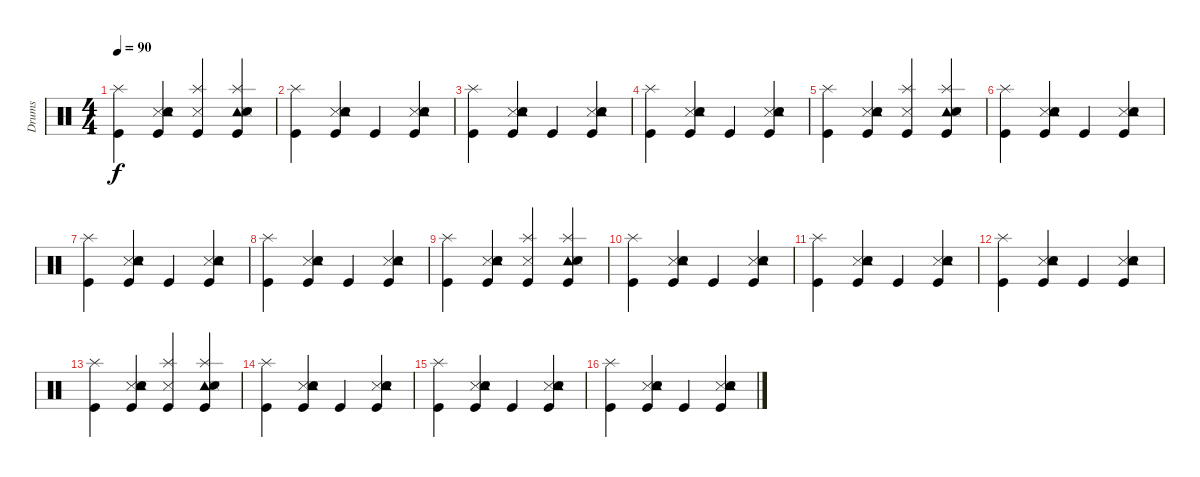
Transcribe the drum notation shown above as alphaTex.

\track ("Drums" "Drums") {instrument percussion}
\staff {score}
\articulation defaults
\ts (4 4)
\tempo 90
\clef neutral
\ks c
("Kick (hit)" "Splash (hit)").4{dy f} ("Metronome (hit)" "Tambourine (hit)" "Kick (hit)" "Hand Clap (hit)").4 ("Kick (hit)" "Splash (hit)" "Metronome (hit)").4 ("Splash (hit)" "Tambourine (hit)" "Kick (hit)" "Metronome (hit)" "Hand Clap (hit)").4 |
("Kick (hit)" "Splash (hit)").4 ("Metronome (hit)" "Tambourine (hit)" "Kick (hit)" "Hand Clap (hit)").4 "Kick (hit)".4 ("Metronome (hit)" "Tambourine (hit)" "Kick (hit)" "Hand Clap (hit)").4 |
("Kick (hit)" "Splash (hit)").4 ("Metronome (hit)" "Tambourine (hit)" "Kick (hit)" "Hand Clap (hit)").4 "Kick (hit)".4 ("Metronome (hit)" "Tambourine (hit)" "Kick (hit)" "Hand Clap (hit)").4 |
("Kick (hit)" "Splash (hit)").4 ("Metronome (hit)" "Tambourine (hit)" "Kick (hit)" "Hand Clap (hit)").4 "Kick (hit)".4 ("Metronome (hit)" "Tambourine (hit)" "Kick (hit)" "Hand Clap (hit)").4 |
("Kick (hit)" "Splash (hit)").4 ("Metronome (hit)" "Tambourine (hit)" "Kick (hit)" "Hand Clap (hit)").4 ("Kick (hit)" "Splash (hit)" "Metronome (hit)").4 ("Splash (hit)" "Tambourine (hit)" "Kick (hit)" "Metronome (hit)" "Hand Clap (hit)").4 |
("Kick (hit)" "Splash (hit)").4 ("Metronome (hit)" "Tambourine (hit)" "Kick (hit)" "Hand Clap (hit)").4 "Kick (hit)".4 ("Metronome (hit)" "Tambourine (hit)" "Kick (hit)" "Hand Clap (hit)").4 |
("Kick (hit)" "Splash (hit)").4 ("Metronome (hit)" "Tambourine (hit)" "Kick (hit)" "Hand Clap (hit)").4 "Kick (hit)".4 ("Metronome (hit)" "Tambourine (hit)" "Kick (hit)" "Hand Clap (hit)").4 |
("Kick (hit)" "Splash (hit)").4 ("Metronome (hit)" "Tambourine (hit)" "Kick (hit)" "Hand Clap (hit)").4 "Kick (hit)".4 ("Metronome (hit)" "Tambourine (hit)" "Kick (hit)" "Hand Clap (hit)").4 |
("Kick (hit)" "Splash (hit)").4 ("Metronome (hit)" "Tambourine (hit)" "Kick (hit)" "Hand Clap (hit)").4 ("Kick (hit)" "Splash (hit)" "Metronome (hit)").4 ("Splash (hit)" "Tambourine (hit)" "Kick (hit)" "Metronome (hit)" "Hand Clap (hit)").4 |
("Kick (hit)" "Splash (hit)").4 ("Metronome (hit)" "Tambourine (hit)" "Kick (hit)" "Hand Clap (hit)").4 "Kick (hit)".4 ("Metronome (hit)" "Tambourine (hit)" "Kick (hit)" "Hand Clap (hit)").4 |
("Kick (hit)" "Splash (hit)").4 ("Metronome (hit)" "Tambourine (hit)" "Kick (hit)" "Hand Clap (hit)").4 "Kick (hit)".4 ("Metronome (hit)" "Tambourine (hit)" "Kick (hit)" "Hand Clap (hit)").4 |
("Kick (hit)" "Splash (hit)").4 ("Metronome (hit)" "Tambourine (hit)" "Kick (hit)" "Hand Clap (hit)").4 "Kick (hit)".4 ("Metronome (hit)" "Tambourine (hit)" "Kick (hit)" "Hand Clap (hit)").4 |
("Kick (hit)" "Splash (hit)").4 ("Metronome (hit)" "Tambourine (hit)" "Kick (hit)" "Hand Clap (hit)").4 ("Kick (hit)" "Splash (hit)" "Metronome (hit)").4 ("Splash (hit)" "Tambourine (hit)" "Kick (hit)" "Metronome (hit)" "Hand Clap (hit)").4 |
("Kick (hit)" "Splash (hit)").4 ("Metronome (hit)" "Tambourine (hit)" "Kick (hit)" "Hand Clap (hit)").4 "Kick (hit)".4 ("Metronome (hit)" "Tambourine (hit)" "Kick (hit)" "Hand Clap (hit)").4 |
("Kick (hit)" "Splash (hit)").4 ("Metronome (hit)" "Tambourine (hit)" "Kick (hit)" "Hand Clap (hit)").4 "Kick (hit)".4 ("Metronome (hit)" "Tambourine (hit)" "Kick (hit)" "Hand Clap (hit)").4 |
("Kick (hit)" "Splash (hit)").4 ("Metronome (hit)" "Tambourine (hit)" "Kick (hit)" "Hand Clap (hit)").4 "Kick (hit)".4 ("Metronome (hit)" "Tambourine (hit)" "Kick (hit)" "Hand Clap (hit)").4
